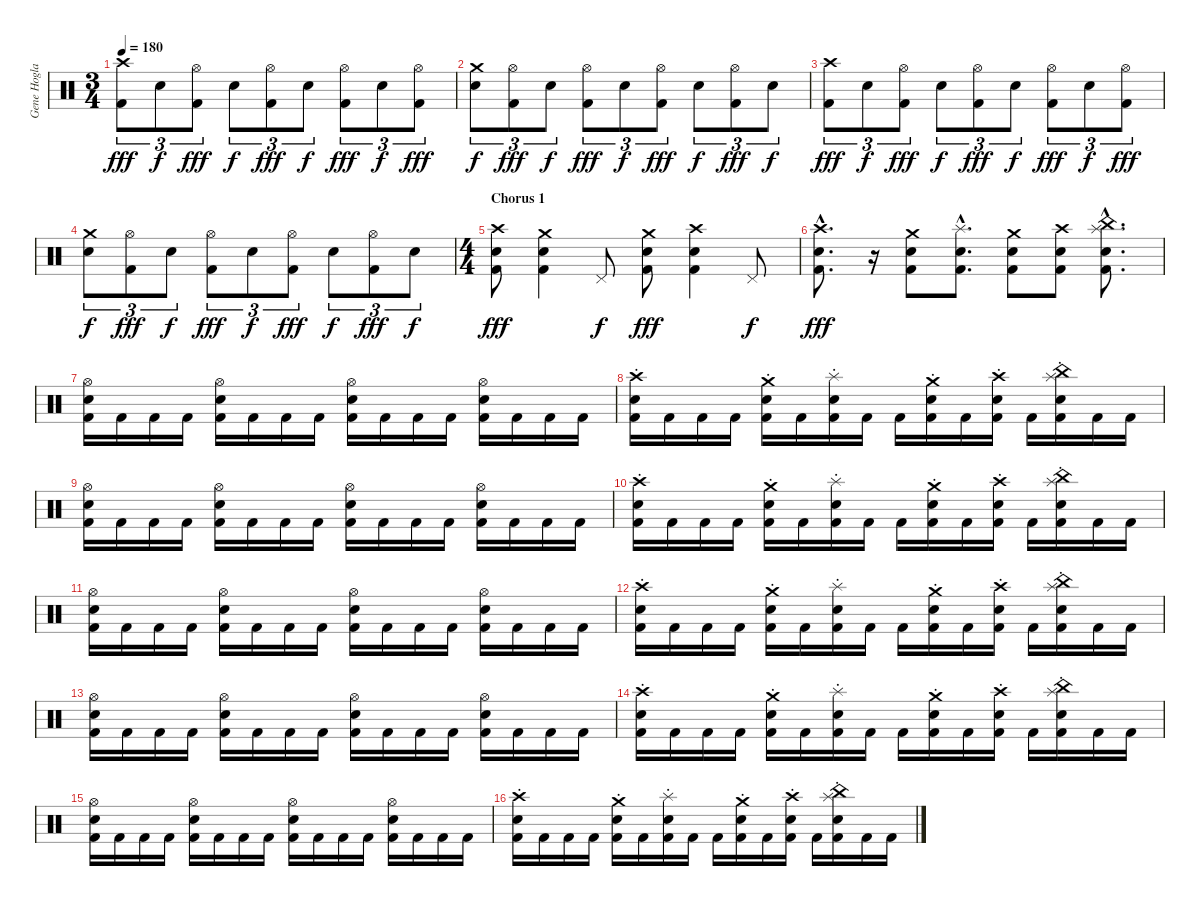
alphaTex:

\track ("Gene Hoglan" "Gene Hogla") {instrument percussion}
\staff {score}
\articulation defaults
\ts (3 4)
\tempo 180
\clef neutral
\ks c
("Crash high (hit)" "Kick (hit) 2").8{tu (3 2) dy fff} "Snare (hit) 2".8{tu (3 2) dy f} ("Hi-Hat (open)" "Kick (hit) 2").8{tu (3 2) dy fff} "Snare (hit) 2".8{tu (3 2) dy f} ("Hi-Hat (open)" "Kick (hit) 2").8{tu (3 2) dy fff} "Snare (hit) 2".8{tu (3 2) dy f} ("Hi-Hat (open)" "Kick (hit) 2").8{tu (3 2) dy fff} "Snare (hit) 2".8{tu (3 2) dy f} ("Hi-Hat (open)" "Kick (hit) 2").8{tu (3 2) dy fff} |
("Crash medium (hit)" "Snare (hit) 2").8{tu (3 2) dy f} ("Hi-Hat (open)" "Kick (hit) 2").8{tu (3 2) dy fff} "Snare (hit) 2".8{tu (3 2) dy f} ("Hi-Hat (open)" "Kick (hit) 2").8{tu (3 2) dy fff} "Snare (hit) 2".8{tu (3 2) dy f} ("Hi-Hat (open)" "Kick (hit) 2").8{tu (3 2) dy fff} "Snare (hit) 2".8{tu (3 2) dy f} ("Hi-Hat (open)" "Kick (hit) 2").8{tu (3 2) dy fff} "Snare (hit) 2".8{tu (3 2) dy f} |
("Crash high (hit)" "Kick (hit) 2").8{tu (3 2) dy fff} "Snare (hit) 2".8{tu (3 2) dy f} ("Hi-Hat (open)" "Kick (hit) 2").8{tu (3 2) dy fff} "Snare (hit) 2".8{tu (3 2) dy f} ("Hi-Hat (open)" "Kick (hit) 2").8{tu (3 2) dy fff} "Snare (hit) 2".8{tu (3 2) dy f} ("Hi-Hat (open)" "Kick (hit) 2").8{tu (3 2) dy fff} "Snare (hit) 2".8{tu (3 2) dy f} ("Hi-Hat (open)" "Kick (hit) 2").8{tu (3 2) dy fff} |
("Crash medium (hit)" "Snare (hit) 2").8{tu (3 2) dy f} ("Hi-Hat (open)" "Kick (hit) 2").8{tu (3 2) dy fff} "Snare (hit) 2".8{tu (3 2) dy f} ("Hi-Hat (open)" "Kick (hit) 2").8{tu (3 2) dy fff} "Snare (hit) 2".8{tu (3 2) dy f} ("Hi-Hat (open)" "Kick (hit) 2").8{tu (3 2) dy fff} "Snare (hit) 2".8{tu (3 2) dy f} ("Hi-Hat (open)" "Kick (hit) 2").8{tu (3 2) dy fff} "Snare (hit) 2".8{tu (3 2) dy f} |
\ts (4 4)
\section ("" "Chorus 1")
("Crash high (hit)" "Snare (hit) 2" "Kick (hit) 2").8{dy fff} ("Crash medium (hit)" "Snare (hit) 2" "Kick (hit) 2").4 "Pedal Hi-Hat (hit)".8{dy f} ("Crash medium (hit)" "Snare (hit) 2" "Kick (hit) 2").8{dy fff} ("Crash high (hit)" "Snare (hit) 2" "Kick (hit) 2").4 "Pedal Hi-Hat (hit)".8{dy f} |
("Crash high (hit)"{hac} "Snare (hit) 2"{hac} "Kick (hit) 2"{hac}).8{d dy fff} r.16 ("Crash medium (hit)" "Snare (hit) 2" "Kick (hit) 2").8 ("Splash (hit)"{hac} "Snare (hit) 2"{hac} "Kick (hit) 2"{hac}).8{d} ("Crash medium (hit)" "Snare (hit) 2" "Kick (hit) 2").8 ("Crash high (hit)" "Snare (hit) 2" "Kick (hit) 2").8 ("China (hit)"{hac} "Splash (hit)"{hac} "Snare (hit) 2"{hac} "Kick (hit) 2"{hac}).8{d} |
("Hi-Hat (open)" "Snare (hit) 2" "Kick (hit) 2").16 "Kick (hit) 2".16 "Kick (hit) 2".16 "Kick (hit) 2".16 ("Hi-Hat (open)" "Snare (hit) 2" "Kick (hit) 2").16 "Kick (hit) 2".16 "Kick (hit) 2".16 "Kick (hit) 2".16 ("Hi-Hat (open)" "Snare (hit) 2" "Kick (hit) 2").16 "Kick (hit) 2".16 "Kick (hit) 2".16 "Kick (hit) 2".16 ("Hi-Hat (open)" "Snare (hit) 2" "Kick (hit) 2").16 "Kick (hit) 2".16 "Kick (hit) 2".16 "Kick (hit) 2".16 |
("Crash high (hit)"{st} "Snare (hit) 2" "Kick (hit) 2").16 "Kick (hit) 2".16 "Kick (hit) 2".16 "Kick (hit) 2".16 ("Crash medium (hit)"{st} "Snare (hit) 2" "Kick (hit) 2").16 "Kick (hit) 2".16 ("Splash (hit)"{st} "Snare (hit) 2" "Kick (hit) 2").16 "Kick (hit) 2".16 "Kick (hit) 2".16 ("Crash medium (hit)"{st} "Snare (hit) 2" "Kick (hit) 2").16 "Kick (hit) 2".16 ("Crash high (hit)"{st} "Snare (hit) 2" "Kick (hit) 2").16 "Kick (hit) 2".16 ("China (hit)"{st} "Splash (hit)"{st} "Snare (hit) 2" "Kick (hit) 2").16 "Kick (hit) 2".16 "Kick (hit) 2".16 |
("Hi-Hat (open)" "Snare (hit) 2" "Kick (hit) 2").16 "Kick (hit) 2".16 "Kick (hit) 2".16 "Kick (hit) 2".16 ("Hi-Hat (open)" "Snare (hit) 2" "Kick (hit) 2").16 "Kick (hit) 2".16 "Kick (hit) 2".16 "Kick (hit) 2".16 ("Hi-Hat (open)" "Snare (hit) 2" "Kick (hit) 2").16 "Kick (hit) 2".16 "Kick (hit) 2".16 "Kick (hit) 2".16 ("Hi-Hat (open)" "Snare (hit) 2" "Kick (hit) 2").16 "Kick (hit) 2".16 "Kick (hit) 2".16 "Kick (hit) 2".16 |
("Crash high (hit)"{st} "Snare (hit) 2" "Kick (hit) 2").16 "Kick (hit) 2".16 "Kick (hit) 2".16 "Kick (hit) 2".16 ("Crash medium (hit)"{st} "Snare (hit) 2" "Kick (hit) 2").16 "Kick (hit) 2".16 ("Splash (hit)"{st} "Snare (hit) 2" "Kick (hit) 2").16 "Kick (hit) 2".16 "Kick (hit) 2".16 ("Crash medium (hit)"{st} "Snare (hit) 2" "Kick (hit) 2").16 "Kick (hit) 2".16 ("Crash high (hit)"{st} "Snare (hit) 2" "Kick (hit) 2").16 "Kick (hit) 2".16 ("China (hit)"{st} "Splash (hit)"{st} "Snare (hit) 2" "Kick (hit) 2").16 "Kick (hit) 2".16 "Kick (hit) 2".16 |
("Hi-Hat (open)" "Snare (hit) 2" "Kick (hit) 2").16 "Kick (hit) 2".16 "Kick (hit) 2".16 "Kick (hit) 2".16 ("Hi-Hat (open)" "Snare (hit) 2" "Kick (hit) 2").16 "Kick (hit) 2".16 "Kick (hit) 2".16 "Kick (hit) 2".16 ("Hi-Hat (open)" "Snare (hit) 2" "Kick (hit) 2").16 "Kick (hit) 2".16 "Kick (hit) 2".16 "Kick (hit) 2".16 ("Hi-Hat (open)" "Snare (hit) 2" "Kick (hit) 2").16 "Kick (hit) 2".16 "Kick (hit) 2".16 "Kick (hit) 2".16 |
("Crash high (hit)"{st} "Snare (hit) 2" "Kick (hit) 2").16 "Kick (hit) 2".16 "Kick (hit) 2".16 "Kick (hit) 2".16 ("Crash medium (hit)"{st} "Snare (hit) 2" "Kick (hit) 2").16 "Kick (hit) 2".16 ("Splash (hit)"{st} "Snare (hit) 2" "Kick (hit) 2").16 "Kick (hit) 2".16 "Kick (hit) 2".16 ("Crash medium (hit)"{st} "Snare (hit) 2" "Kick (hit) 2").16 "Kick (hit) 2".16 ("Crash high (hit)"{st} "Snare (hit) 2" "Kick (hit) 2").16 "Kick (hit) 2".16 ("China (hit)"{st} "Splash (hit)"{st} "Snare (hit) 2" "Kick (hit) 2").16 "Kick (hit) 2".16 "Kick (hit) 2".16 |
("Hi-Hat (open)" "Snare (hit) 2" "Kick (hit) 2").16 "Kick (hit) 2".16 "Kick (hit) 2".16 "Kick (hit) 2".16 ("Hi-Hat (open)" "Snare (hit) 2" "Kick (hit) 2").16 "Kick (hit) 2".16 "Kick (hit) 2".16 "Kick (hit) 2".16 ("Hi-Hat (open)" "Snare (hit) 2" "Kick (hit) 2").16 "Kick (hit) 2".16 "Kick (hit) 2".16 "Kick (hit) 2".16 ("Hi-Hat (open)" "Snare (hit) 2" "Kick (hit) 2").16 "Kick (hit) 2".16 "Kick (hit) 2".16 "Kick (hit) 2".16 |
("Crash high (hit)"{st} "Snare (hit) 2" "Kick (hit) 2").16 "Kick (hit) 2".16 "Kick (hit) 2".16 "Kick (hit) 2".16 ("Crash medium (hit)"{st} "Snare (hit) 2" "Kick (hit) 2").16 "Kick (hit) 2".16 ("Splash (hit)"{st} "Snare (hit) 2" "Kick (hit) 2").16 "Kick (hit) 2".16 "Kick (hit) 2".16 ("Crash medium (hit)"{st} "Snare (hit) 2" "Kick (hit) 2").16 "Kick (hit) 2".16 ("Crash high (hit)"{st} "Snare (hit) 2" "Kick (hit) 2").16 "Kick (hit) 2".16 ("China (hit)"{st} "Splash (hit)"{st} "Snare (hit) 2" "Kick (hit) 2").16 "Kick (hit) 2".16 "Kick (hit) 2".16 |
("Hi-Hat (open)" "Snare (hit) 2" "Kick (hit) 2").16 "Kick (hit) 2".16 "Kick (hit) 2".16 "Kick (hit) 2".16 ("Hi-Hat (open)" "Snare (hit) 2" "Kick (hit) 2").16 "Kick (hit) 2".16 "Kick (hit) 2".16 "Kick (hit) 2".16 ("Hi-Hat (open)" "Snare (hit) 2" "Kick (hit) 2").16 "Kick (hit) 2".16 "Kick (hit) 2".16 "Kick (hit) 2".16 ("Hi-Hat (open)" "Snare (hit) 2" "Kick (hit) 2").16 "Kick (hit) 2".16 "Kick (hit) 2".16 "Kick (hit) 2".16 |
("Crash high (hit)"{st} "Snare (hit) 2" "Kick (hit) 2").16 "Kick (hit) 2".16 "Kick (hit) 2".16 "Kick (hit) 2".16 ("Crash medium (hit)"{st} "Snare (hit) 2" "Kick (hit) 2").16 "Kick (hit) 2".16 ("Splash (hit)"{st} "Snare (hit) 2" "Kick (hit) 2").16 "Kick (hit) 2".16 "Kick (hit) 2".16 ("Crash medium (hit)"{st} "Snare (hit) 2" "Kick (hit) 2").16 "Kick (hit) 2".16 ("Crash high (hit)"{st} "Snare (hit) 2" "Kick (hit) 2").16 "Kick (hit) 2".16 ("China (hit)"{st} "Splash (hit)"{st} "Snare (hit) 2" "Kick (hit) 2").16 "Kick (hit) 2".16 "Kick (hit) 2".16
